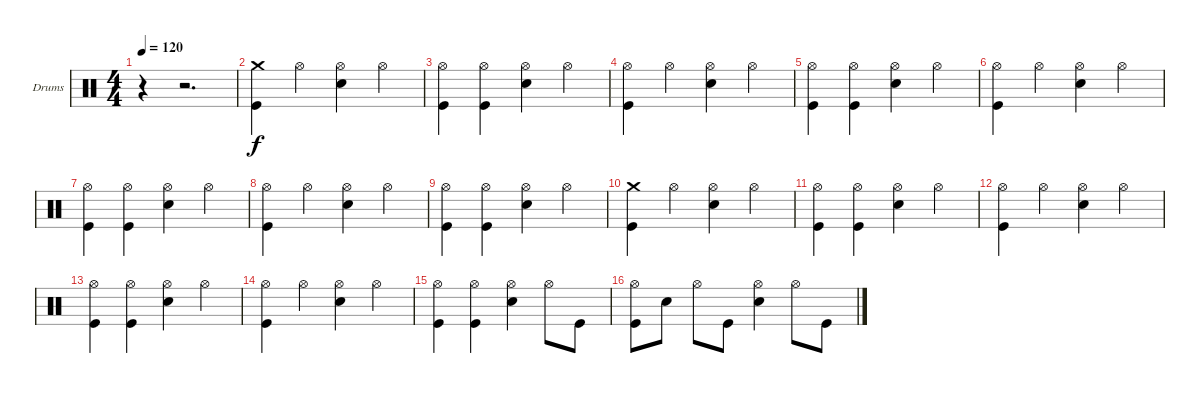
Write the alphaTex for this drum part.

\bracketExtendMode groupsimilarinstruments
\firstSystemTrackNameOrientation horizontal
\otherSystemsTrackNameOrientation horizontal
\track ("Drumkit (Christoph)" "Drums") {instrument percussion}
\staff {score}
\articulation defaults
\ts (4 4)
\tempo 120
\clef neutral
\ks c
r.4{dy f} r.2{d} |
("Crash medium (hit)" "Kick (hit)").4 "Hi-Hat (open)".4 ("Hi-Hat (open)" "Snare (hit) 2").4 "Hi-Hat (open)".4 |
("Hi-Hat (open)" "Kick (hit)").4 ("Hi-Hat (open)" "Kick (hit)").4 ("Hi-Hat (open)" "Snare (hit) 2").4 "Hi-Hat (open)".4 |
("Hi-Hat (open)" "Kick (hit)").4 "Hi-Hat (open)".4 ("Hi-Hat (open)" "Snare (hit) 2").4 "Hi-Hat (open)".4 |
("Hi-Hat (open)" "Kick (hit)").4 ("Hi-Hat (open)" "Kick (hit)").4 ("Hi-Hat (open)" "Snare (hit) 2").4 "Hi-Hat (open)".4 |
("Hi-Hat (open)" "Kick (hit)").4 "Hi-Hat (open)".4 ("Hi-Hat (open)" "Snare (hit) 2").4 "Hi-Hat (open)".4 |
("Hi-Hat (open)" "Kick (hit)").4 ("Hi-Hat (open)" "Kick (hit)").4 ("Hi-Hat (open)" "Snare (hit) 2").4 "Hi-Hat (open)".4 |
("Hi-Hat (open)" "Kick (hit)").4 "Hi-Hat (open)".4 ("Hi-Hat (open)" "Snare (hit) 2").4 "Hi-Hat (open)".4 |
("Hi-Hat (open)" "Kick (hit)").4 ("Hi-Hat (open)" "Kick (hit)").4 ("Hi-Hat (open)" "Snare (hit) 2").4 "Hi-Hat (open)".4 |
("Crash medium (hit)" "Kick (hit)").4 "Hi-Hat (open)".4 ("Hi-Hat (open)" "Snare (hit) 2").4 "Hi-Hat (open)".4 |
("Hi-Hat (open)" "Kick (hit)").4 ("Hi-Hat (open)" "Kick (hit)").4 ("Hi-Hat (open)" "Snare (hit) 2").4 "Hi-Hat (open)".4 |
("Hi-Hat (open)" "Kick (hit)").4 "Hi-Hat (open)".4 ("Hi-Hat (open)" "Snare (hit) 2").4 "Hi-Hat (open)".4 |
("Hi-Hat (open)" "Kick (hit)").4 ("Hi-Hat (open)" "Kick (hit)").4 ("Hi-Hat (open)" "Snare (hit) 2").4 "Hi-Hat (open)".4 |
("Hi-Hat (open)" "Kick (hit)").4 "Hi-Hat (open)".4 ("Hi-Hat (open)" "Snare (hit) 2").4 "Hi-Hat (open)".4 |
("Hi-Hat (open)" "Kick (hit)").4 ("Hi-Hat (open)" "Kick (hit)").4 ("Hi-Hat (open)" "Snare (hit) 2").4 "Hi-Hat (open)".8 "Kick (hit)".8 |
("Hi-Hat (open)" "Kick (hit)").8 "Snare (hit) 2".8 "Hi-Hat (open)".8 "Kick (hit)".8 ("Hi-Hat (open)" "Snare (hit) 2").4 "Hi-Hat (open)".8 "Kick (hit)".8
